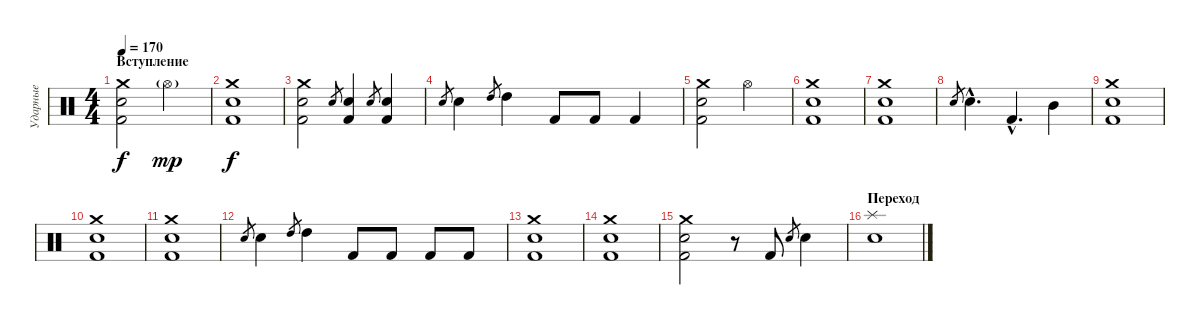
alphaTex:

\track ("Ударные" "Ударные") {instrument percussion}
\staff {score}
\articulation defaults
\ts (4 4)
\section ("" "Вступление")
\tempo 170
\clef neutral
\ks c
("Electric Snare (hit)" "Kick (hit) 2" "Crash medium (hit)").2{dy f} "Hi-Hat (open)"{g}.2{dy mp} |
("Electric Snare (hit)" "Kick (hit) 2" "Crash medium (hit)").1{dy f} |
("Electric Snare (hit)" "Kick (hit) 2" "Crash medium (hit)").2 "Electric Snare (hit)".8{gr} ("Electric Snare (hit)" "Kick (hit) 2").4 "Electric Snare (hit)".8{gr} ("Electric Snare (hit)" "Kick (hit) 2").4 |
"Electric Snare (hit)".8{gr} "Electric Snare (hit)".4 "High Tom (hit)".8{gr} "High Tom (hit)".4 "Kick (hit) 2".8 "Kick (hit) 2".8 "Kick (hit) 2".4 |
("Electric Snare (hit)" "Kick (hit) 2" "Crash medium (hit)").2 "Hi-Hat (open)".2 |
("Electric Snare (hit)" "Kick (hit) 2" "Crash medium (hit)").1 |
("Electric Snare (hit)" "Kick (hit) 2" "Crash medium (hit)").1 |
"Electric Snare (hit)".8{gr} "Electric Snare (hit)"{hac}.4{d} "Kick (hit) 2"{hac}.4{d} "Mid Tom (hit)".4 |
("Electric Snare (hit)" "Kick (hit) 2" "Crash medium (hit)").1 |
("Electric Snare (hit)" "Kick (hit) 2" "Crash medium (hit)").1 |
("Electric Snare (hit)" "Kick (hit) 2" "Crash medium (hit)").1 |
"Electric Snare (hit)".8{gr} "Electric Snare (hit)".4 "High Tom (hit)".8{gr} "High Tom (hit)".4 "Kick (hit) 2".8 "Kick (hit) 2".8 "Kick (hit) 2".8 "Kick (hit) 2".8 |
("Electric Snare (hit)" "Kick (hit) 2" "Crash medium (hit)").1 |
("Electric Snare (hit)" "Kick (hit) 2" "Crash medium (hit)").1 |
("Electric Snare (hit)" "Kick (hit) 2" "Crash medium (hit)").2 r.8 "Kick (hit) 2".8 "Electric Snare (hit)".8{gr} "Electric Snare (hit)".4 |
\section ("" "Переход")
("Splash (hit)" "Electric Snare (hit)").1
